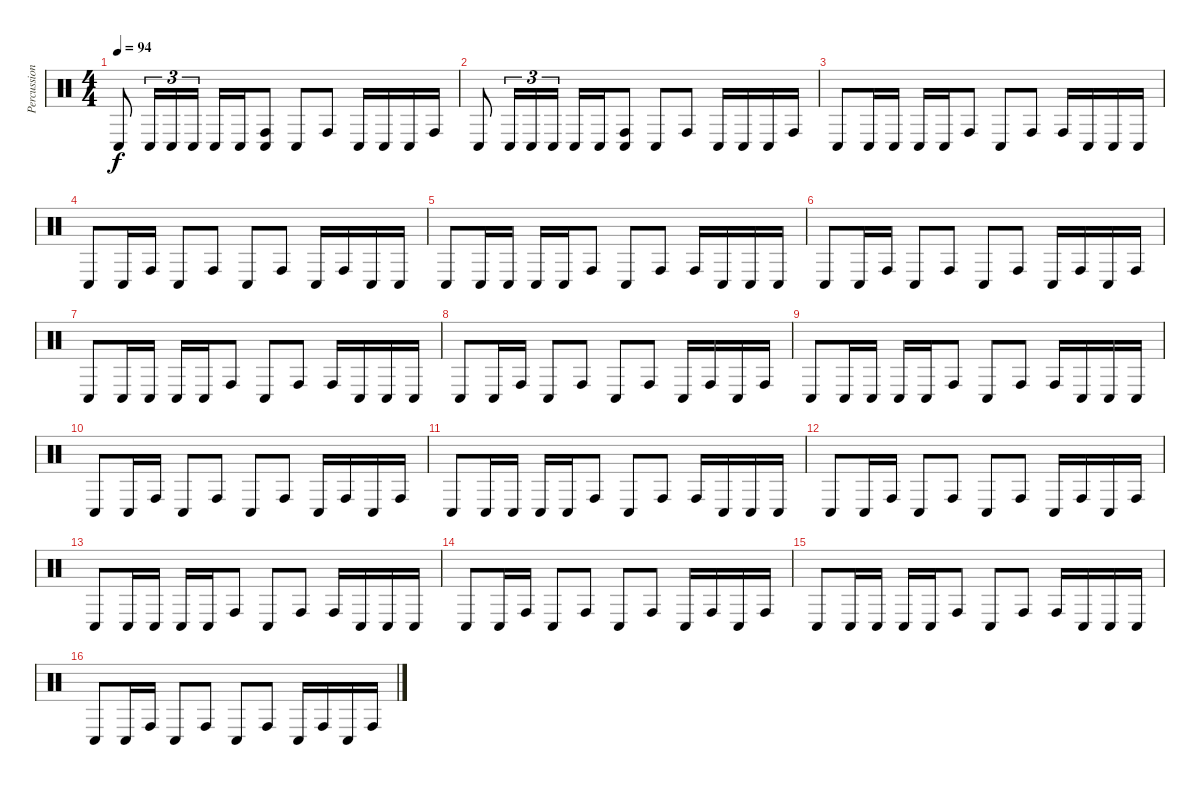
\track ("Percussion" "Percussion") {instrument percussion}
\staff {score}
\articulation defaults
\ts (4 4)
\tempo 94
\clef neutral
\ks c "Conga low (hit)".8{dy f} "Conga low (hit)".16{tu (3 2)} "Conga low (hit)".16{tu (3 2)} "Conga low (hit)".16{tu (3 2)} "Conga low (hit)".16 "Conga low (hit)".16
("Conga low (hit)" "Conga high (hit)").8 "Conga low (hit)".8 "Conga high (hit)".8 "Conga low (hit)".16 "Conga low (hit)".16 "Conga low (hit)".16 "Conga high (hit)".16 |
"Conga low (hit)".8 "Conga low (hit)".16{tu (3 2)} "Conga low (hit)".16{tu (3 2)} "Conga low (hit)".16{tu (3 2)} "Conga low (hit)".16 "Conga low (hit)".16 ("Conga low (hit)" "Conga high (hit)").8 "Conga low (hit)".8 "Conga high (hit)".8 "Conga low (hit)".16 "Conga low (hit)".16 "Conga low (hit)".16 "Conga high (hit)".16 |
"Conga low (hit)".8 "Conga low (hit)".16 "Conga low (hit)".16 "Conga low (hit)".16 "Conga low (hit)".16 "Conga high (hit)".8 "Conga low (hit)".8 "Conga high (hit)".8 "Conga high (hit)".16 "Conga low (hit)".16 "Conga low (hit)".16 "Conga low (hit)".16 |
"Conga low (hit)".8 "Conga low (hit)".16 "Conga high (hit)".16 "Conga low (hit)".8 "Conga high (hit)".8 "Conga low (hit)".8 "Conga high (hit)".8 "Conga low (hit)".16 "Conga high (hit)".16 "Conga low (hit)".16 "Conga low (hit)".16 |
"Conga low (hit)".8 "Conga low (hit)".16 "Conga low (hit)".16 "Conga low (hit)".16 "Conga low (hit)".16 "Conga high (hit)".8 "Conga low (hit)".8 "Conga high (hit)".8 "Conga high (hit)".16 "Conga low (hit)".16 "Conga low (hit)".16 "Conga low (hit)".16 |
"Conga low (hit)".8 "Conga low (hit)".16 "Conga high (hit)".16 "Conga low (hit)".8 "Conga high (hit)".8 "Conga low (hit)".8 "Conga high (hit)".8 "Conga low (hit)".16 "Conga high (hit)".16 "Conga low (hit)".16 "Conga high (hit)".16 |
"Conga low (hit)".8 "Conga low (hit)".16 "Conga low (hit)".16 "Conga low (hit)".16 "Conga low (hit)".16 "Conga high (hit)".8 "Conga low (hit)".8 "Conga high (hit)".8 "Conga high (hit)".16 "Conga low (hit)".16 "Conga low (hit)".16 "Conga low (hit)".16 |
"Conga low (hit)".8 "Conga low (hit)".16 "Conga high (hit)".16 "Conga low (hit)".8 "Conga high (hit)".8 "Conga low (hit)".8 "Conga high (hit)".8 "Conga low (hit)".16 "Conga high (hit)".16 "Conga low (hit)".16 "Conga high (hit)".16 |
"Conga low (hit)".8 "Conga low (hit)".16 "Conga low (hit)".16 "Conga low (hit)".16 "Conga low (hit)".16 "Conga high (hit)".8 "Conga low (hit)".8 "Conga high (hit)".8 "Conga high (hit)".16 "Conga low (hit)".16 "Conga low (hit)".16 "Conga low (hit)".16 |
"Conga low (hit)".8 "Conga low (hit)".16 "Conga high (hit)".16 "Conga low (hit)".8 "Conga high (hit)".8 "Conga low (hit)".8 "Conga high (hit)".8 "Conga low (hit)".16 "Conga high (hit)".16 "Conga low (hit)".16 "Conga high (hit)".16 |
"Conga low (hit)".8 "Conga low (hit)".16 "Conga low (hit)".16 "Conga low (hit)".16 "Conga low (hit)".16 "Conga high (hit)".8 "Conga low (hit)".8 "Conga high (hit)".8 "Conga high (hit)".16 "Conga low (hit)".16 "Conga low (hit)".16 "Conga low (hit)".16 |
"Conga low (hit)".8 "Conga low (hit)".16 "Conga high (hit)".16 "Conga low (hit)".8 "Conga high (hit)".8 "Conga low (hit)".8 "Conga high (hit)".8 "Conga low (hit)".16 "Conga high (hit)".16 "Conga low (hit)".16 "Conga high (hit)".16 |
"Conga low (hit)".8 "Conga low (hit)".16 "Conga low (hit)".16 "Conga low (hit)".16 "Conga low (hit)".16 "Conga high (hit)".8 "Conga low (hit)".8 "Conga high (hit)".8 "Conga high (hit)".16 "Conga low (hit)".16 "Conga low (hit)".16 "Conga low (hit)".16 |
"Conga low (hit)".8 "Conga low (hit)".16 "Conga high (hit)".16 "Conga low (hit)".8 "Conga high (hit)".8 "Conga low (hit)".8 "Conga high (hit)".8 "Conga low (hit)".16 "Conga high (hit)".16 "Conga low (hit)".16 "Conga high (hit)".16 |
"Conga low (hit)".8 "Conga low (hit)".16 "Conga low (hit)".16 "Conga low (hit)".16 "Conga low (hit)".16 "Conga high (hit)".8 "Conga low (hit)".8 "Conga high (hit)".8 "Conga high (hit)".16 "Conga low (hit)".16 "Conga low (hit)".16 "Conga low (hit)".16 |
"Conga low (hit)".8 "Conga low (hit)".16 "Conga high (hit)".16 "Conga low (hit)".8 "Conga high (hit)".8 "Conga low (hit)".8 "Conga high (hit)".8 "Conga low (hit)".16 "Conga high (hit)".16 "Conga low (hit)".16 "Conga high (hit)".16
